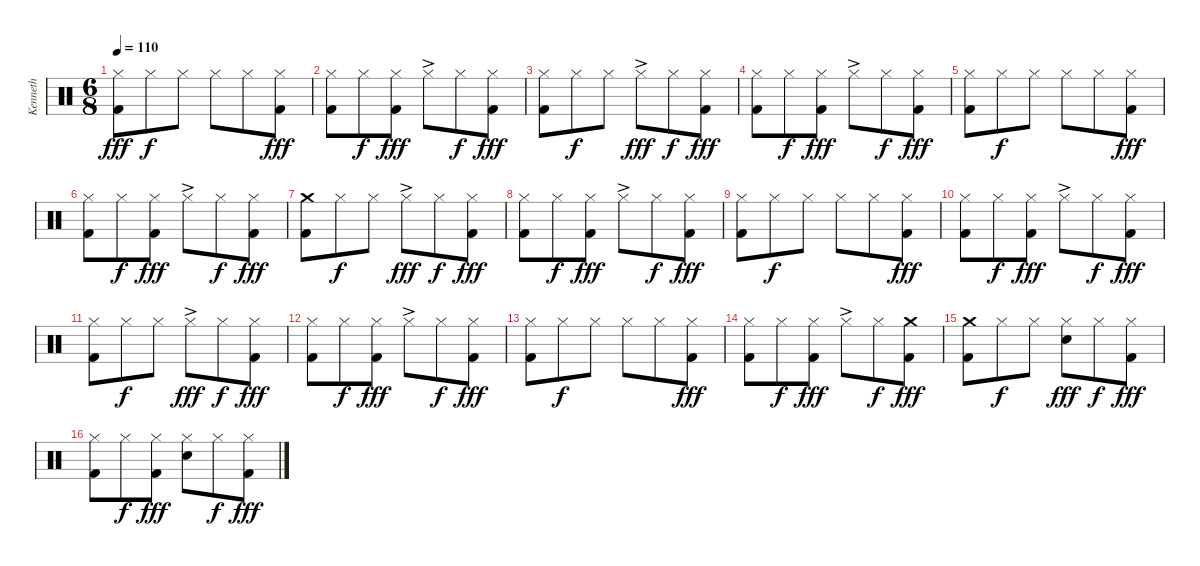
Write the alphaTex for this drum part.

\track ("Kenneth" "Kenneth") {instrument percussion}
\staff {score}
\articulation defaults
\ts (6 8)
\tempo 110
\clef neutral
\ks c
("Hi-Hat (closed)" "Kick (hit) 2").8{dy fff} "Hi-Hat (closed)".8{dy f} "Hi-Hat (closed)".8 "Hi-Hat (closed)".8 "Hi-Hat (closed)".8 ("Hi-Hat (closed)" "Kick (hit) 2").8{dy fff} |
("Hi-Hat (closed)" "Kick (hit) 2").8 "Hi-Hat (closed)".8{dy f} ("Hi-Hat (closed)" "Kick (hit) 2").8{dy fff} "Hi-Hat (closed)"{ac}.8 "Hi-Hat (closed)".8{dy f} ("Hi-Hat (closed)" "Kick (hit) 2").8{dy fff} |
("Hi-Hat (closed)" "Kick (hit) 2").8 "Hi-Hat (closed)".8{dy f} "Hi-Hat (closed)".8 "Hi-Hat (closed)"{ac}.8{dy fff} "Hi-Hat (closed)".8{dy f} ("Hi-Hat (closed)" "Kick (hit) 2").8{dy fff} |
("Hi-Hat (closed)" "Kick (hit) 2").8 "Hi-Hat (closed)".8{dy f} ("Hi-Hat (closed)" "Kick (hit) 2").8{dy fff} "Hi-Hat (closed)"{ac}.8 "Hi-Hat (closed)".8{dy f} ("Hi-Hat (closed)" "Kick (hit) 2").8{dy fff} |
("Hi-Hat (closed)" "Kick (hit) 2").8 "Hi-Hat (closed)".8{dy f} "Hi-Hat (closed)".8 "Hi-Hat (closed)".8 "Hi-Hat (closed)".8 ("Hi-Hat (closed)" "Kick (hit) 2").8{dy fff} |
("Hi-Hat (closed)" "Kick (hit) 2").8 "Hi-Hat (closed)".8{dy f} ("Hi-Hat (closed)" "Kick (hit) 2").8{dy fff} "Hi-Hat (closed)"{ac}.8 "Hi-Hat (closed)".8{dy f} ("Hi-Hat (closed)" "Kick (hit) 2").8{dy fff} |
("Crash medium (hit)" "Kick (hit) 2").8 "Hi-Hat (closed)".8{dy f} "Hi-Hat (closed)".8 "Hi-Hat (closed)"{ac}.8{dy fff} "Hi-Hat (closed)".8{dy f} ("Hi-Hat (closed)" "Kick (hit) 2").8{dy fff} |
("Hi-Hat (closed)" "Kick (hit) 2").8 "Hi-Hat (closed)".8{dy f} ("Hi-Hat (closed)" "Kick (hit) 2").8{dy fff} "Hi-Hat (closed)"{ac}.8 "Hi-Hat (closed)".8{dy f} ("Hi-Hat (closed)" "Kick (hit) 2").8{dy fff} |
("Hi-Hat (closed)" "Kick (hit) 2").8 "Hi-Hat (closed)".8{dy f} "Hi-Hat (closed)".8 "Hi-Hat (closed)".8 "Hi-Hat (closed)".8 ("Hi-Hat (closed)" "Kick (hit) 2").8{dy fff} |
("Hi-Hat (closed)" "Kick (hit) 2").8 "Hi-Hat (closed)".8{dy f} ("Hi-Hat (closed)" "Kick (hit) 2").8{dy fff} "Hi-Hat (closed)"{ac}.8 "Hi-Hat (closed)".8{dy f} ("Hi-Hat (closed)" "Kick (hit) 2").8{dy fff} |
("Hi-Hat (closed)" "Kick (hit) 2").8 "Hi-Hat (closed)".8{dy f} "Hi-Hat (closed)".8 "Hi-Hat (closed)"{ac}.8{dy fff} "Hi-Hat (closed)".8{dy f} ("Hi-Hat (closed)" "Kick (hit) 2").8{dy fff} |
("Hi-Hat (closed)" "Kick (hit) 2").8 "Hi-Hat (closed)".8{dy f} ("Hi-Hat (closed)" "Kick (hit) 2").8{dy fff} "Hi-Hat (closed)"{ac}.8 "Hi-Hat (closed)".8{dy f} ("Hi-Hat (closed)" "Kick (hit) 2").8{dy fff} |
("Hi-Hat (closed)" "Kick (hit) 2").8 "Hi-Hat (closed)".8{dy f} "Hi-Hat (closed)".8 "Hi-Hat (closed)".8 "Hi-Hat (closed)".8 ("Hi-Hat (closed)" "Kick (hit) 2").8{dy fff} |
("Hi-Hat (closed)" "Kick (hit) 2").8 "Hi-Hat (closed)".8{dy f} ("Hi-Hat (closed)" "Kick (hit) 2").8{dy fff} "Hi-Hat (closed)"{ac}.8 "Hi-Hat (closed)".8{dy f} ("Crash medium (hit)" "Kick (hit) 2").8{dy fff} |
("Crash medium (hit)" "Kick (hit) 2").8 "Hi-Hat (closed)".8{dy f} "Hi-Hat (closed)".8 ("Hi-Hat (closed)" "Electric Snare (hit)").8{dy fff} "Hi-Hat (closed)".8{dy f} ("Hi-Hat (closed)" "Kick (hit) 2").8{dy fff} |
("Hi-Hat (closed)" "Kick (hit) 2").8 "Hi-Hat (closed)".8{dy f} ("Hi-Hat (closed)" "Kick (hit) 2").8{dy fff} ("Hi-Hat (closed)" "Electric Snare (hit)").8 "Hi-Hat (closed)".8{dy f} ("Hi-Hat (closed)" "Kick (hit) 2").8{dy fff}
